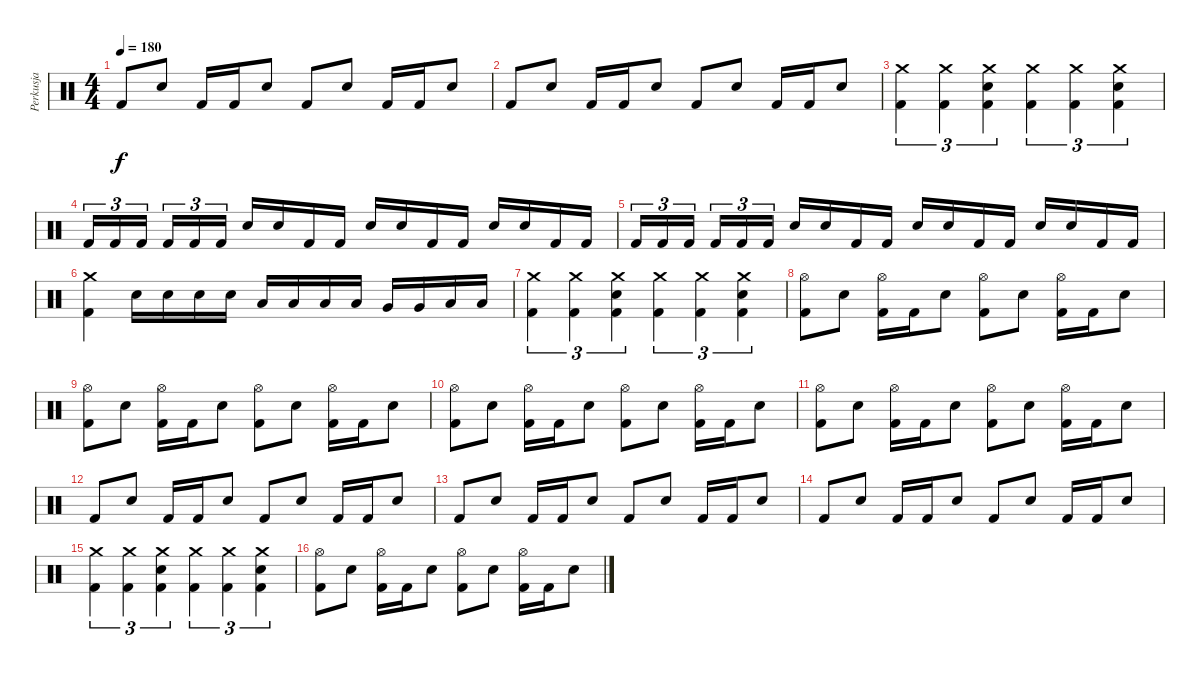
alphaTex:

\track ("Perkusja" "Perkusja") {instrument percussion}
\staff {score}
\articulation defaults
\ts (4 4)
\tempo 180
\clef neutral
\ks c "Kick (hit) 2".8{dy f} "Electric Snare (hit)".8 "Kick (hit) 2".16 "Kick (hit) 2".16 "Electric Snare (hit)".8 "Kick (hit) 2".8 "Electric Snare (hit)".8 "Kick (hit) 2".16 "Kick (hit) 2".16 "Electric Snare (hit)".8
|
"Kick (hit) 2".8 "Electric Snare (hit)".8 "Kick (hit) 2".16 "Kick (hit) 2".16 "Electric Snare (hit)".8 "Kick (hit) 2".8 "Electric Snare (hit)".8 "Kick (hit) 2".16 "Kick (hit) 2".16 "Electric Snare (hit)".8 |
("Crash medium (hit)" "Kick (hit) 2").4{tu (3 2)} ("Crash medium (hit)" "Kick (hit) 2").4{tu (3 2)} ("Crash medium (hit)" "Electric Snare (hit)" "Kick (hit) 2").4{tu (3 2)} ("Crash medium (hit)" "Kick (hit) 2").4{tu (3 2)} ("Crash medium (hit)" "Kick (hit) 2").4{tu (3 2)} ("Crash medium (hit)" "Electric Snare (hit)" "Kick (hit) 2").4{tu (3 2)} |
"Kick (hit) 2".16{tu (3 2)} "Kick (hit) 2".16{tu (3 2)} "Kick (hit) 2".16{tu (3 2) beam splitsecondary} "Kick (hit) 2".16{tu (3 2)} "Kick (hit) 2".16{tu (3 2)} "Kick (hit) 2".16{tu (3 2)} "Electric Snare (hit)".16 "Electric Snare (hit)".16 "Kick (hit) 2".16 "Kick (hit) 2".16 "Electric Snare (hit)".16 "Electric Snare (hit)".16 "Kick (hit) 2".16 "Kick (hit) 2".16 "Electric Snare (hit)".16 "Electric Snare (hit)".16 "Kick (hit) 2".16 "Kick (hit) 2".16 |
"Kick (hit) 2".16{tu (3 2)} "Kick (hit) 2".16{tu (3 2)} "Kick (hit) 2".16{tu (3 2) beam splitsecondary} "Kick (hit) 2".16{tu (3 2)} "Kick (hit) 2".16{tu (3 2)} "Kick (hit) 2".16{tu (3 2)} "Electric Snare (hit)".16 "Electric Snare (hit)".16 "Kick (hit) 2".16 "Kick (hit) 2".16 "Electric Snare (hit)".16 "Electric Snare (hit)".16 "Kick (hit) 2".16 "Kick (hit) 2".16 "Electric Snare (hit)".16 "Electric Snare (hit)".16 "Kick (hit) 2".16 "Kick (hit) 2".16 |
("Crash medium (hit)" "Kick (hit) 2").4 "Electric Snare (hit)".16 "Electric Snare (hit)".16 "Electric Snare (hit)".16 "Electric Snare (hit)".16 "Low Tom (hit)".16 "Low Tom (hit)".16 "Low Tom (hit)".16 "Low Tom (hit)".16 "Very Low Tom (hit)".16 "Very Low Tom (hit)".16 "Low Floor Tom (hit)".16 "Low Floor Tom (hit)".16 |
("Crash medium (hit)" "Kick (hit) 2").4{tu (3 2)} ("Crash medium (hit)" "Kick (hit) 2").4{tu (3 2)} ("Crash medium (hit)" "Electric Snare (hit)" "Kick (hit) 2").4{tu (3 2)} ("Crash medium (hit)" "Kick (hit) 2").4{tu (3 2)} ("Crash medium (hit)" "Kick (hit) 2").4{tu (3 2)} ("Crash medium (hit)" "Electric Snare (hit)" "Kick (hit) 2").4{tu (3 2)} |
("Hi-Hat (open)" "Kick (hit) 2").8 "Electric Snare (hit)".8 ("Hi-Hat (open)" "Kick (hit) 2").16 "Kick (hit) 2".16 "Electric Snare (hit)".8 ("Hi-Hat (open)" "Kick (hit) 2").8 "Electric Snare (hit)".8 ("Hi-Hat (open)" "Kick (hit) 2").16 "Kick (hit) 2".16 "Electric Snare (hit)".8 |
("Hi-Hat (open)" "Kick (hit) 2").8 "Electric Snare (hit)".8 ("Hi-Hat (open)" "Kick (hit) 2").16 "Kick (hit) 2".16 "Electric Snare (hit)".8 ("Hi-Hat (open)" "Kick (hit) 2").8 "Electric Snare (hit)".8 ("Hi-Hat (open)" "Kick (hit) 2").16 "Kick (hit) 2".16 "Electric Snare (hit)".8 |
("Hi-Hat (open)" "Kick (hit) 2").8 "Electric Snare (hit)".8 ("Hi-Hat (open)" "Kick (hit) 2").16 "Kick (hit) 2".16 "Electric Snare (hit)".8 ("Hi-Hat (open)" "Kick (hit) 2").8 "Electric Snare (hit)".8 ("Hi-Hat (open)" "Kick (hit) 2").16 "Kick (hit) 2".16 "Electric Snare (hit)".8 |
("Hi-Hat (open)" "Kick (hit) 2").8 "Electric Snare (hit)".8 ("Hi-Hat (open)" "Kick (hit) 2").16 "Kick (hit) 2".16 "Electric Snare (hit)".8 ("Hi-Hat (open)" "Kick (hit) 2").8 "Electric Snare (hit)".8 ("Hi-Hat (open)" "Kick (hit) 2").16 "Kick (hit) 2".16 "Electric Snare (hit)".8 |
"Kick (hit) 2".8 "Electric Snare (hit)".8 "Kick (hit) 2".16 "Kick (hit) 2".16 "Electric Snare (hit)".8 "Kick (hit) 2".8 "Electric Snare (hit)".8 "Kick (hit) 2".16 "Kick (hit) 2".16 "Electric Snare (hit)".8 |
"Kick (hit) 2".8 "Electric Snare (hit)".8 "Kick (hit) 2".16 "Kick (hit) 2".16 "Electric Snare (hit)".8 "Kick (hit) 2".8 "Electric Snare (hit)".8 "Kick (hit) 2".16 "Kick (hit) 2".16 "Electric Snare (hit)".8 |
"Kick (hit) 2".8 "Electric Snare (hit)".8 "Kick (hit) 2".16 "Kick (hit) 2".16 "Electric Snare (hit)".8 "Kick (hit) 2".8 "Electric Snare (hit)".8 "Kick (hit) 2".16 "Kick (hit) 2".16 "Electric Snare (hit)".8 |
("Crash medium (hit)" "Kick (hit) 2").4{tu (3 2)} ("Crash medium (hit)" "Kick (hit) 2").4{tu (3 2)} ("Crash medium (hit)" "Electric Snare (hit)" "Kick (hit) 2").4{tu (3 2)} ("Crash medium (hit)" "Kick (hit) 2").4{tu (3 2)} ("Crash medium (hit)" "Kick (hit) 2").4{tu (3 2)} ("Crash medium (hit)" "Electric Snare (hit)" "Kick (hit) 2").4{tu (3 2)} |
("Hi-Hat (open)" "Kick (hit) 2").8 "Electric Snare (hit)".8 ("Hi-Hat (open)" "Kick (hit) 2").16 "Kick (hit) 2".16 "Electric Snare (hit)".8 ("Hi-Hat (open)" "Kick (hit) 2").8 "Electric Snare (hit)".8 ("Hi-Hat (open)" "Kick (hit) 2").16 "Kick (hit) 2".16 "Electric Snare (hit)".8
